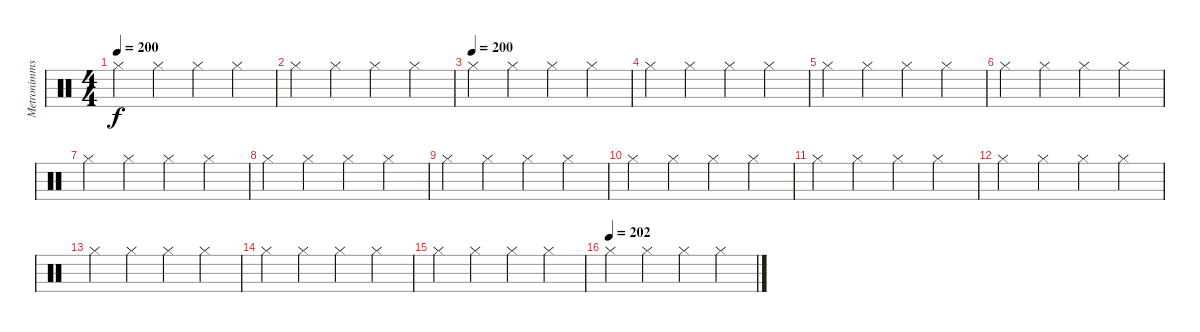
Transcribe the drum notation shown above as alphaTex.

\track ("Metronimms" "Metronimms") {instrument percussion}
\staff {score}
\articulation defaults
\ts (4 4)
\tempo 200
\clef neutral
\ks c "Hi-Hat (closed)".4{dy f} "Hi-Hat (closed)".4 "Hi-Hat (closed)".4 "Hi-Hat (closed)".4
|
"Hi-Hat (closed)".4 "Hi-Hat (closed)".4 "Hi-Hat (closed)".4 "Hi-Hat (closed)".4 |
\tempo (200)
"Hi-Hat (closed)".4 "Hi-Hat (closed)".4 "Hi-Hat (closed)".4 "Hi-Hat (closed)".4 |
"Hi-Hat (closed)".4 "Hi-Hat (closed)".4 "Hi-Hat (closed)".4 "Hi-Hat (closed)".4 |
"Hi-Hat (closed)".4 "Hi-Hat (closed)".4 "Hi-Hat (closed)".4 "Hi-Hat (closed)".4 |
"Hi-Hat (closed)".4 "Hi-Hat (closed)".4 "Hi-Hat (closed)".4 "Hi-Hat (closed)".4 |
"Hi-Hat (closed)".4 "Hi-Hat (closed)".4 "Hi-Hat (closed)".4 "Hi-Hat (closed)".4 |
"Hi-Hat (closed)".4 "Hi-Hat (closed)".4 "Hi-Hat (closed)".4 "Hi-Hat (closed)".4 |
"Hi-Hat (closed)".4 "Hi-Hat (closed)".4 "Hi-Hat (closed)".4 "Hi-Hat (closed)".4 |
"Hi-Hat (closed)".4 "Hi-Hat (closed)".4 "Hi-Hat (closed)".4 "Hi-Hat (closed)".4 |
"Hi-Hat (closed)".4 "Hi-Hat (closed)".4 "Hi-Hat (closed)".4 "Hi-Hat (closed)".4 |
"Hi-Hat (closed)".4 "Hi-Hat (closed)".4 "Hi-Hat (closed)".4 "Hi-Hat (closed)".4 |
"Hi-Hat (closed)".4 "Hi-Hat (closed)".4 "Hi-Hat (closed)".4 "Hi-Hat (closed)".4 |
"Hi-Hat (closed)".4 "Hi-Hat (closed)".4 "Hi-Hat (closed)".4 "Hi-Hat (closed)".4 |
"Hi-Hat (closed)".4 "Hi-Hat (closed)".4 "Hi-Hat (closed)".4 "Hi-Hat (closed)".4 |
\tempo (202)
"Hi-Hat (closed)".4 "Hi-Hat (closed)".4 "Hi-Hat (closed)".4 "Hi-Hat (closed)".4
